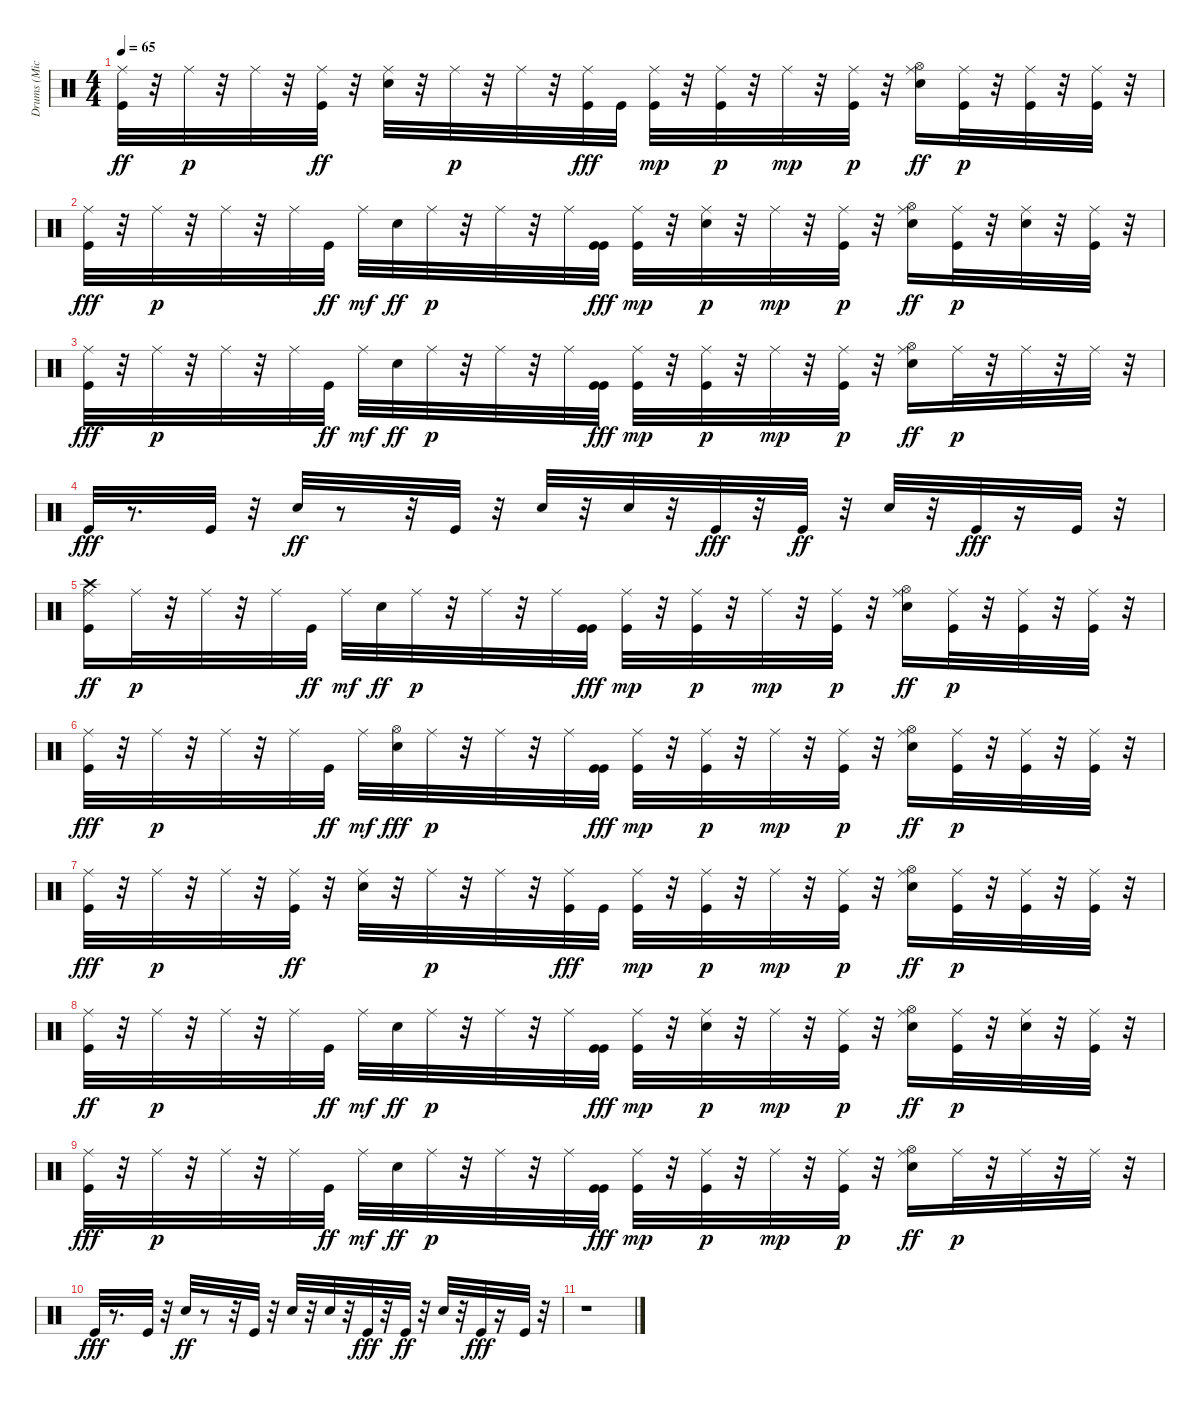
\track ("Drums (Michael Giles)" "Drums (Mic") {instrument percussion}
\staff {score}
\articulation defaults
\ts (4 4)
\tempo 65
\clef neutral
\ks c
("Kick (hit)" "Ride (middle)").32{dy ff} r.32 "Ride (middle)".32{dy p} r.32 "Ride (middle)".32 r.32 ("Ride (middle)" "Kick (hit)").32{dy ff} r.32 ("Ride (middle)" "Snare (hit) 2").32 r.32 "Ride (middle)".32{dy p} r.32 "Ride (middle)".32 r.32 ("Ride (middle)" "Kick (hit)").32{dy fff} "Kick (hit)".32 ("Kick (hit)" "Ride (middle)").32{dy mp} r.32 ("Kick (hit)" "Ride (middle)").32{dy p} r.32 "Ride (middle)".32{dy mp} r.32 ("Kick (hit)" "Ride (middle)").32{dy p} r.32 ("Ride (middle)" "Hi-Hat (open)" "Snare (hit) 2").16{dy ff} ("Ride (middle)" "Kick (hit)").32{dy p} r.32 ("Ride (middle)" "Kick (hit)").32 r.32 ("Kick (hit)" "Ride (middle)").32 r.32 |
("Ride (middle)" "Kick (hit)").32{dy fff} r.32 "Ride (middle)".32{dy p} r.32 "Ride (middle)".32 r.32 "Ride (middle)".32 "Kick (hit)".32{dy ff} "Ride (middle)".32{dy mf} "Snare (hit) 2".32{dy ff} "Ride (middle)".32{dy p} r.32 "Ride (middle)".32 r.32 "Ride (middle)".32 ("Kick (hit)" "Kick (hit)").32{dy fff} ("Kick (hit)" "Ride (middle)").32{dy mp} r.32 ("Snare (hit) 2" "Ride (middle)").32{dy p} r.32 "Ride (middle)".32{dy mp} r.32 ("Ride (middle)" "Kick (hit)").32{dy p} r.32 ("Ride (middle)" "Hi-Hat (open)" "Snare (hit) 2").16{dy ff} ("Ride (middle)" "Kick (hit)").32{dy p} r.32 ("Ride (middle)" "Snare (hit) 2").32 r.32 ("Kick (hit)" "Ride (middle)").32 r.32 |
("Ride (middle)" "Kick (hit)").32{dy fff} r.32 "Ride (middle)".32{dy p} r.32 "Ride (middle)".32 r.32 "Ride (middle)".32 "Kick (hit)".32{dy ff} "Ride (middle)".32{dy mf} "Snare (hit) 2".32{dy ff} "Ride (middle)".32{dy p} r.32 "Ride (middle)".32 r.32 "Ride (middle)".32 ("Kick (hit)" "Kick (hit)").32{dy fff} ("Kick (hit)" "Ride (middle)").32{dy mp} r.32 ("Kick (hit)" "Ride (middle)").32{dy p} r.32 "Ride (middle)".32{dy mp} r.32 ("Ride (middle)" "Kick (hit)").32{dy p} r.32 ("Ride (middle)" "Hi-Hat (open)" "Snare (hit) 2").16{dy ff} "Ride (middle)".32{dy p} r.32 "Ride (middle)".32 r.32 "Ride (middle)".32 r.32 |
"Kick (hit)".32{dy fff} r.8{d} "Kick (hit)".32 r.32 "Snare (hit) 2".32{dy ff} r.8 r.32 "Kick (hit)".32 r.32 "Snare (hit) 2".32 r.32 "Snare (hit) 2".32 r.32 "Kick (hit)".32{dy fff} r.32 "Kick (hit)".32{dy ff} r.32 "Snare (hit) 2".32 r.32 "Kick (hit)".32{dy fff} r.16 "Kick (hit)".32 r.32 |
("Kick (hit)" "Ride (middle)" "Crash high (hit)").16{dy ff volume 16} "Ride (middle)".32{dy p volume 16} r.32 "Ride (middle)".32{volume 16} r.32 "Ride (middle)".32{volume 16} "Kick (hit)".32{dy ff volume 15} "Ride (middle)".32{dy mf volume 15} "Snare (hit) 2".32{dy ff} "Ride (middle)".32{dy p volume 15} r.32 "Ride (middle)".32{volume 15} r.32 "Ride (middle)".32{volume 15} ("Kick (hit)" "Kick (hit)").32{dy fff} ("Kick (hit)" "Ride (middle)").32{dy mp volume 15} r.32 ("Kick (hit)" "Ride (middle)").32{dy p volume 14} r.32 "Ride (middle)".32{dy mp volume 14} r.32 ("Kick (hit)" "Ride (middle)").32{dy p volume 14} r.32 ("Ride (middle)" "Hi-Hat (open)" "Snare (hit) 2").16{dy ff volume 14} ("Ride (middle)" "Kick (hit)").32{dy p volume 14} r.32 ("Ride (middle)" "Kick (hit)").32{volume 14} r.32 ("Kick (hit)" "Ride (middle)").32{volume 14} r.32 |
("Ride (middle)" "Kick (hit)").32{dy fff volume 13} r.32 "Ride (middle)".32{dy p volume 13} r.32 "Ride (middle)".32{volume 13} r.32 "Ride (middle)".32{volume 13} "Kick (hit)".32{dy ff} "Ride (middle)".32{dy mf volume 13} ("Snare (hit) 2" "Hi-Hat (open)").32{dy fff} "Ride (middle)".32{dy p} r.32 "Ride (middle)".32{volume 12} r.32 "Ride (middle)".32{volume 12} ("Kick (hit)" "Kick (hit)").32{dy fff} ("Kick (hit)" "Ride (middle)").32{dy mp} r.32 ("Kick (hit)" "Ride (middle)").32{dy p volume 12} r.32 "Ride (middle)".32{dy mp volume 12} r.32 ("Ride (middle)" "Kick (hit)").32{dy p volume 12} r.32 ("Hi-Hat (open)" "Ride (middle)" "Snare (hit) 2").16{dy ff volume 11} ("Ride (middle)" "Kick (hit)").32{dy p volume 11} r.32 ("Ride (middle)" "Kick (hit)").32{volume 11} r.32 ("Kick (hit)" "Ride (middle)").32{volume 11} r.32 |
("Ride (middle)" "Kick (hit)").32{dy fff volume 11} r.32 "Ride (middle)".32{dy p volume 10} r.32 "Ride (middle)".32{volume 10} r.32 ("Ride (middle)" "Kick (hit)").32{dy ff volume 10} r.32 ("Ride (middle)" "Snare (hit) 2").32{volume 10} r.32 "Ride (middle)".32{dy p volume 10} r.32 "Ride (middle)".32{volume 10} r.32 ("Ride (middle)" "Kick (hit)").32{dy fff volume 10} "Kick (hit)".32{volume 9} ("Kick (hit)" "Ride (middle)").32{dy mp} r.32 ("Kick (hit)" "Ride (middle)").32{dy p volume 9} r.32 "Ride (middle)".32{dy mp volume 9} r.32 ("Ride (middle)" "Kick (hit)").32{dy p volume 9} r.32 ("Ride (middle)" "Hi-Hat (open)" "Snare (hit) 2").16{dy ff volume 9} ("Ride (middle)" "Kick (hit)").32{dy p volume 8} r.32 ("Ride (middle)" "Kick (hit)").32{volume 8} r.32 ("Kick (hit)" "Ride (middle)").32{volume 8} r.32 |
("Kick (hit)" "Ride (middle)").32{dy ff volume 8} r.32 "Ride (middle)".32{dy p volume 8} r.32 "Ride (middle)".32{volume 8} r.32 "Ride (middle)".32{volume 8} "Kick (hit)".32{dy ff} "Ride (middle)".32{dy mf volume 7} "Snare (hit) 2".32{dy ff volume 7} "Ride (middle)".32{dy p volume 7} r.32 "Ride (middle)".32{volume 7} r.32 "Ride (middle)".32{volume 7} ("Kick (hit)" "Kick (hit)").32{dy fff volume 7} ("Kick (hit)" "Ride (middle)").32{dy mp} r.32 ("Snare (hit) 2" "Ride (middle)").32{dy p volume 6} r.32 "Ride (middle)".32{dy mp volume 6} r.32 ("Kick (hit)" "Ride (middle)").32{dy p volume 6} r.32 ("Ride (middle)" "Hi-Hat (open)" "Snare (hit) 2").16{dy ff volume 6} ("Ride (middle)" "Kick (hit)").32{dy p volume 6} r.32 ("Ride (middle)" "Snare (hit) 2").32{volume 6} r.32 ("Kick (hit)" "Ride (middle)").32{volume 6} r.32 |
("Ride (middle)" "Kick (hit)").32{dy fff volume 5} r.32 "Ride (middle)".32{dy p volume 5} r.32 "Ride (middle)".32{volume 5} r.32 "Ride (middle)".32{volume 5} "Kick (hit)".32{dy ff} "Ride (middle)".32{dy mf volume 5} "Snare (hit) 2".32{dy ff volume 5} "Ride (middle)".32{dy p volume 4} r.32 "Ride (middle)".32{volume 4} r.32 "Ride (middle)".32{volume 4} ("Kick (hit)" "Kick (hit)").32{dy fff} ("Kick (hit)" "Ride (middle)").32{dy mp volume 4} r.32 ("Kick (hit)" "Ride (middle)").32{dy p volume 4} r.32 "Ride (middle)".32{dy mp volume 4} r.32 ("Ride (middle)" "Kick (hit)").32{dy p volume 4} r.32 ("Ride (middle)" "Hi-Hat (open)" "Snare (hit) 2").16{dy ff volume 3} "Ride (middle)".32{dy p volume 3} r.32 "Ride (middle)".32{volume 3} r.32 "Ride (middle)".32{volume 3} r.32 |
"Kick (hit)".32{dy fff volume 3} r.8{d} "Kick (hit)".32{volume 2} r.32 "Snare (hit) 2".32{dy ff volume 2} r.8 r.32 "Kick (hit)".32{volume 2} r.32 "Snare (hit) 2".32{volume 1} r.32 "Snare (hit) 2".32{volume 1} r.32 "Kick (hit)".32{dy fff volume 1} r.32 "Kick (hit)".32{dy ff volume 1} r.32 "Snare (hit) 2".32{volume 1} r.32 "Kick (hit)".32{dy fff volume 0} r.16 "Kick (hit)".32{volume 0} r.32 |
r.1
